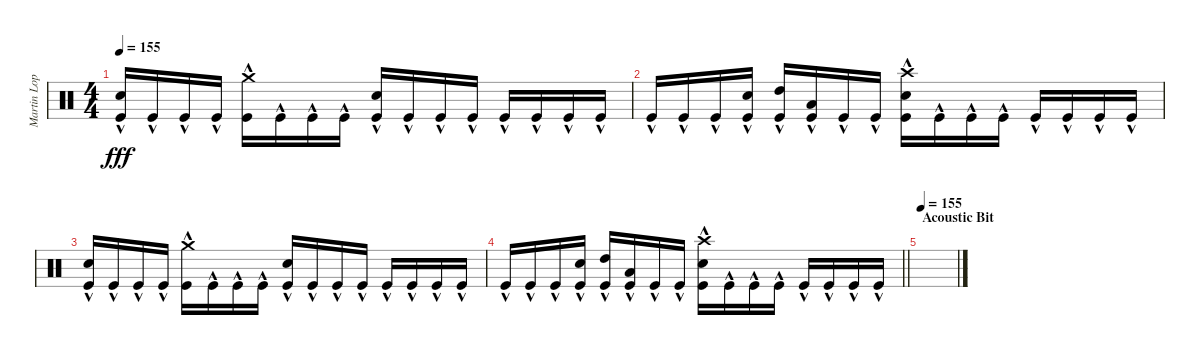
\track ("Martin Lopez" "Martin Lop") {instrument percussion}
\staff {score}
\articulation defaults
\ts (4 4)
\tempo 155
\clef neutral
\ks c
("Electric Snare (hit)" "Kick (hit)"{hac}).16{dy fff} "Kick (hit)"{hac}.16 "Kick (hit)"{hac}.16 "Kick (hit)"{hac}.16 ("Crash medium (hit)" "Kick (hit)"{hac}).16 "Kick (hit)"{hac}.16 "Kick (hit)"{hac}.16 "Kick (hit)"{hac}.16 ("Electric Snare (hit)" "Kick (hit)"{hac}).16 "Kick (hit)"{hac}.16 "Kick (hit)"{hac}.16 "Kick (hit)"{hac}.16 "Kick (hit)"{hac}.16 "Kick (hit)"{hac}.16 "Kick (hit)"{hac}.16 "Kick (hit)"{hac}.16 |
"Kick (hit)"{hac}.16 "Kick (hit)"{hac}.16 "Kick (hit)"{hac}.16 ("Electric Snare (hit)" "Kick (hit)"{hac}).16 ("High Tom (hit)" "Kick (hit)"{hac}).16 ("Low Tom (hit)" "Kick (hit)"{hac}).16 "Kick (hit)"{hac}.16 "Kick (hit)"{hac}.16 ("Crash high (hit)" "Electric Snare (hit)" "Kick (hit)"{hac}).16 "Kick (hit)"{hac}.16 "Kick (hit)"{hac}.16 "Kick (hit)"{hac}.16 "Kick (hit)"{hac}.16 "Kick (hit)"{hac}.16 "Kick (hit)"{hac}.16 "Kick (hit)"{hac}.16 |
("Electric Snare (hit)" "Kick (hit)"{hac}).16 "Kick (hit)"{hac}.16 "Kick (hit)"{hac}.16 "Kick (hit)"{hac}.16 ("Crash medium (hit)" "Kick (hit)"{hac}).16 "Kick (hit)"{hac}.16 "Kick (hit)"{hac}.16 "Kick (hit)"{hac}.16 ("Electric Snare (hit)" "Kick (hit)"{hac}).16 "Kick (hit)"{hac}.16 "Kick (hit)"{hac}.16 "Kick (hit)"{hac}.16 "Kick (hit)"{hac}.16 "Kick (hit)"{hac}.16 "Kick (hit)"{hac}.16 "Kick (hit)"{hac}.16 |
\barLineRight lightlight "Kick (hit)"{hac}.16 "Kick (hit)"{hac}.16 "Kick (hit)"{hac}.16
("Electric Snare (hit)" "Kick (hit)"{hac}).16 ("High Tom (hit)" "Kick (hit)"{hac}).16 ("Low Tom (hit)" "Kick (hit)"{hac}).16 "Kick (hit)"{hac}.16 "Kick (hit)"{hac}.16 ("Crash high (hit)" "Electric Snare (hit)" "Kick (hit)"{hac}).16 "Kick (hit)"{hac}.16 "Kick (hit)"{hac}.16 "Kick (hit)"{hac}.16 "Kick (hit)"{hac}.16 "Kick (hit)"{hac}.16 "Kick (hit)"{hac}.16 "Kick (hit)"{hac}.16 |
\section ("" "Acoustic Bit")
\tempo 155
